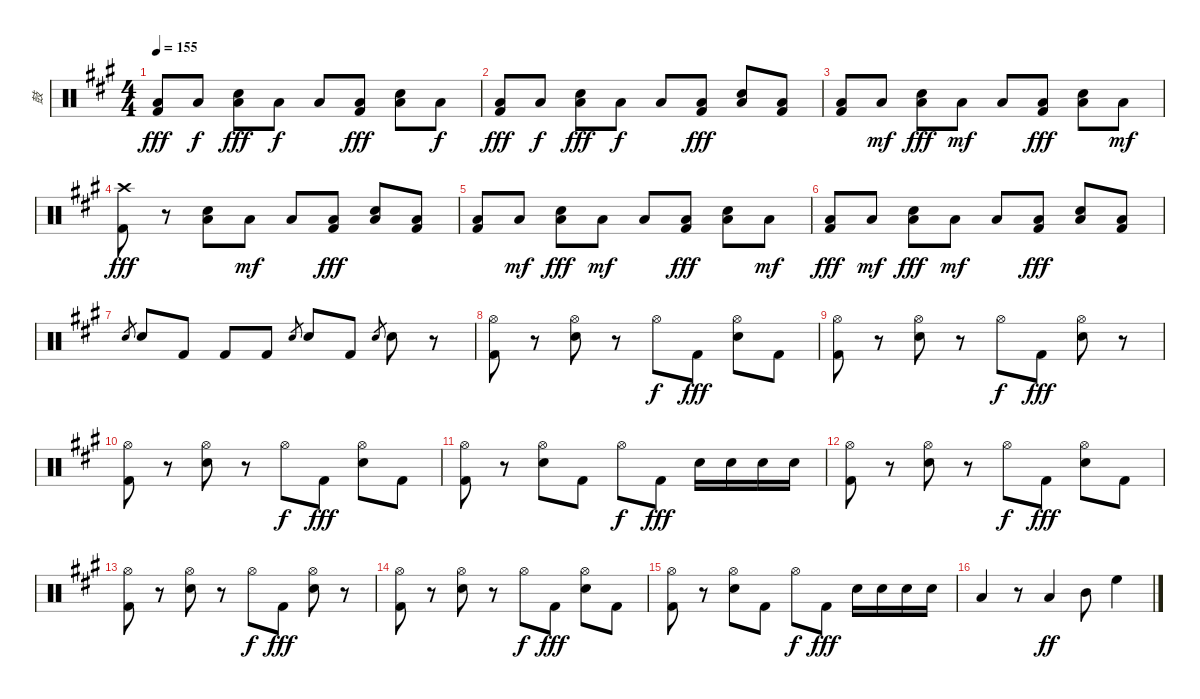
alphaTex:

\track ("鼓" "鼓") {instrument percussion}
\staff {score}
\articulation defaults
\ts (4 4)
\tempo 155
\clef neutral
\ks a
("Low Floor Tom (hit)" "Kick (hit) 2").8{dy fff} "Low Floor Tom (hit)".8{dy f} ("Low Floor Tom (hit)" "Electric Snare (hit)").8{dy fff} "Low Floor Tom (hit)".8{dy f} "Low Floor Tom (hit)".8 ("Low Floor Tom (hit)" "Kick (hit) 2").8{dy fff} ("Low Floor Tom (hit)" "Electric Snare (hit)").8 "Low Floor Tom (hit)".8{dy f} |
("Low Floor Tom (hit)" "Kick (hit) 2").8{dy fff} "Low Floor Tom (hit)".8{dy f} ("Low Floor Tom (hit)" "Electric Snare (hit)").8{dy fff} "Low Floor Tom (hit)".8{dy f} "Low Floor Tom (hit)".8 ("Low Floor Tom (hit)" "Kick (hit) 2").8{dy fff} ("Low Floor Tom (hit)" "Electric Snare (hit)").8 ("Low Floor Tom (hit)" "Kick (hit) 2").8 |
("Low Floor Tom (hit)" "Kick (hit) 2").8 "Low Floor Tom (hit)".8{dy mf} ("Low Floor Tom (hit)" "Electric Snare (hit)").8{dy fff} "Low Floor Tom (hit)".8{dy mf} "Low Floor Tom (hit)".8 ("Low Floor Tom (hit)" "Kick (hit) 2").8{dy fff} ("Low Floor Tom (hit)" "Electric Snare (hit)").8 "Low Floor Tom (hit)".8{dy mf} |
("Kick (hit) 2" "Crash high (hit)").8{dy fff} r.8 ("Low Floor Tom (hit)" "Electric Snare (hit)").8 "Low Floor Tom (hit)".8{dy mf} "Low Floor Tom (hit)".8 ("Low Floor Tom (hit)" "Kick (hit) 2").8{dy fff} ("Low Floor Tom (hit)" "Electric Snare (hit)").8 ("Low Floor Tom (hit)" "Kick (hit) 2").8 |
("Low Floor Tom (hit)" "Kick (hit) 2").8 "Low Floor Tom (hit)".8{dy mf} ("Low Floor Tom (hit)" "Electric Snare (hit)").8{dy fff} "Low Floor Tom (hit)".8{dy mf} "Low Floor Tom (hit)".8 ("Low Floor Tom (hit)" "Kick (hit) 2").8{dy fff} ("Low Floor Tom (hit)" "Electric Snare (hit)").8 "Low Floor Tom (hit)".8{dy mf} |
("Low Floor Tom (hit)" "Kick (hit) 2").8{dy fff} "Low Floor Tom (hit)".8{dy mf} ("Low Floor Tom (hit)" "Electric Snare (hit)").8{dy fff} "Low Floor Tom (hit)".8{dy mf} "Low Floor Tom (hit)".8 ("Low Floor Tom (hit)" "Kick (hit) 2").8{dy fff} ("Low Floor Tom (hit)" "Electric Snare (hit)").8 ("Low Floor Tom (hit)" "Kick (hit) 2").8 |
"Electric Snare (hit)".8{gr} "Electric Snare (hit)".8 "Kick (hit) 2".8 "Kick (hit) 2".8 "Kick (hit) 2".8 "Electric Snare (hit)".8{gr} "Electric Snare (hit)".8 "Kick (hit) 2".8 "Electric Snare (hit)".8{gr} "Electric Snare (hit)".8 r.8 |
("Hi-Hat (open)" "Kick (hit) 2").8 r.8 ("Hi-Hat (open)" "Electric Snare (hit)").8 r.8 "Hi-Hat (open)".8{dy f} "Kick (hit) 2".8{dy fff} ("Hi-Hat (open)" "Electric Snare (hit)").8 "Kick (hit) 2".8 |
("Hi-Hat (open)" "Kick (hit) 2").8 r.8 ("Hi-Hat (open)" "Electric Snare (hit)").8 r.8 "Hi-Hat (open)".8{dy f} "Kick (hit) 2".8{dy fff} ("Hi-Hat (open)" "Electric Snare (hit)").8 r.8 |
("Hi-Hat (open)" "Kick (hit) 2").8 r.8 ("Hi-Hat (open)" "Electric Snare (hit)").8 r.8 "Hi-Hat (open)".8{dy f} "Kick (hit) 2".8{dy fff} ("Hi-Hat (open)" "Electric Snare (hit)").8 "Kick (hit) 2".8 |
("Hi-Hat (open)" "Kick (hit) 2").8 r.8 ("Hi-Hat (open)" "Electric Snare (hit)").8 "Kick (hit) 2".8 "Hi-Hat (open)".8{dy f} "Kick (hit) 2".8{dy fff} "Electric Snare (hit)".16 "Electric Snare (hit)".16 "Electric Snare (hit)".16 "Electric Snare (hit)".16 |
("Hi-Hat (open)" "Kick (hit) 2").8 r.8 ("Hi-Hat (open)" "Electric Snare (hit)").8 r.8 "Hi-Hat (open)".8{dy f} "Kick (hit) 2".8{dy fff} ("Hi-Hat (open)" "Electric Snare (hit)").8 "Kick (hit) 2".8 |
("Hi-Hat (open)" "Kick (hit) 2").8 r.8 ("Hi-Hat (open)" "Electric Snare (hit)").8 r.8 "Hi-Hat (open)".8{dy f} "Kick (hit) 2".8{dy fff} ("Hi-Hat (open)" "Electric Snare (hit)").8 r.8 |
("Hi-Hat (open)" "Kick (hit) 2").8 r.8 ("Hi-Hat (open)" "Electric Snare (hit)").8 r.8 "Hi-Hat (open)".8{dy f} "Kick (hit) 2".8{dy fff} ("Hi-Hat (open)" "Electric Snare (hit)").8 "Kick (hit) 2".8 |
("Hi-Hat (open)" "Kick (hit) 2").8 r.8 ("Hi-Hat (open)" "Electric Snare (hit)").8 "Kick (hit) 2".8 "Hi-Hat (open)".8{dy f} "Kick (hit) 2".8{dy fff} "Electric Snare (hit)".16 "Electric Snare (hit)".16 "Electric Snare (hit)".16 "Electric Snare (hit)".16 |
"Low Floor Tom (hit)".4 r.8 "Low Tom (hit)".4{dy ff} "Mid Tom (hit)".8 "High Floor Tom (hit)".4
